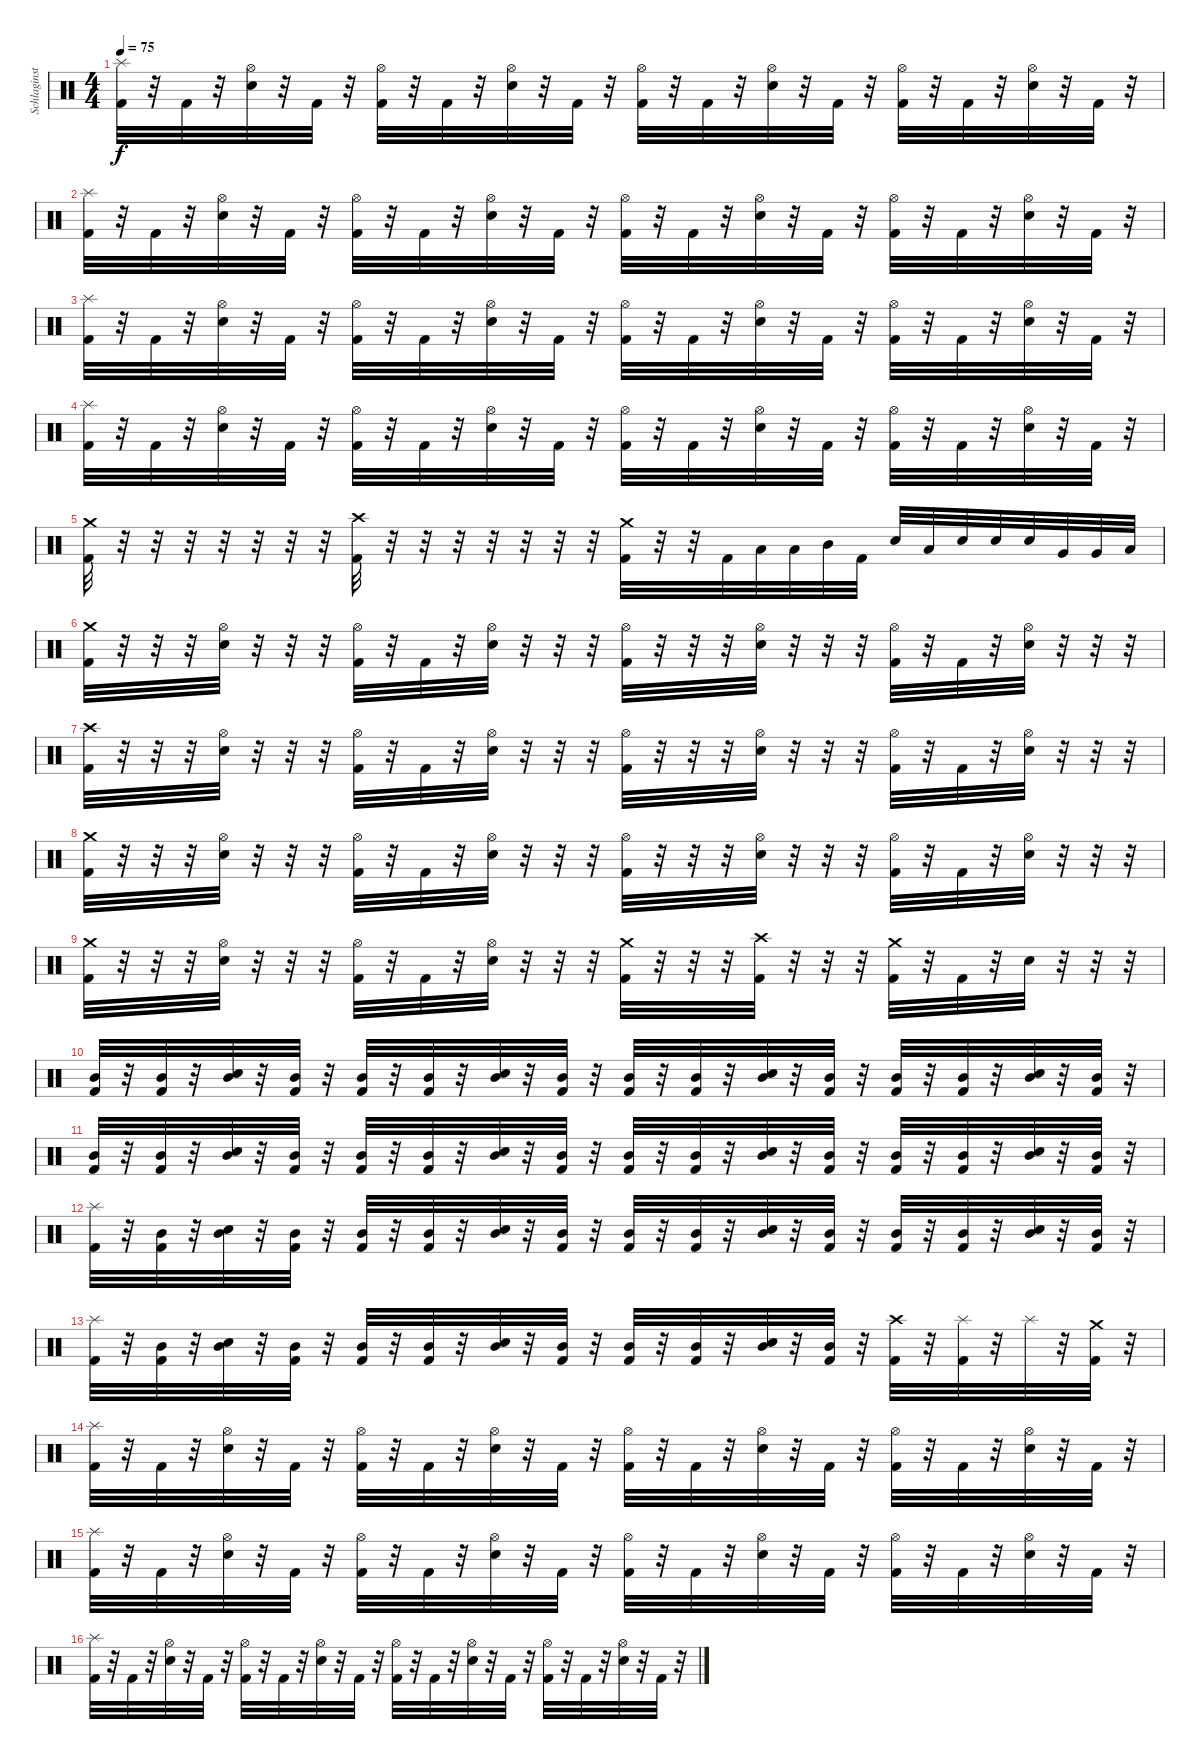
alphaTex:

\track ("Schlaginstrumente - Auswahl" "Schlaginst") {instrument percussion}
\staff {score}
\articulation defaults
\ts (4 4)
\tempo 75
\clef neutral
\ks c
("Kick (hit) 2" "Splash (hit)").32{dy f} r.32 "Kick (hit) 2".32 r.32 ("Electric Snare (hit)" "Hi-Hat (open)").32 r.32 "Kick (hit) 2".32 r.32 ("Kick (hit) 2" "Hi-Hat (open)").32 r.32 "Kick (hit) 2".32 r.32 ("Electric Snare (hit)" "Hi-Hat (open)").32 r.32 "Kick (hit) 2".32 r.32 ("Kick (hit) 2" "Hi-Hat (open)").32 r.32 "Kick (hit) 2".32 r.32 ("Electric Snare (hit)" "Hi-Hat (open)").32 r.32 "Kick (hit) 2".32 r.32 ("Kick (hit) 2" "Hi-Hat (open)").32 r.32 "Kick (hit) 2".32 r.32 ("Electric Snare (hit)" "Hi-Hat (open)").32 r.32 "Kick (hit) 2".32 r.32 |
("Kick (hit) 2" "Splash (hit)").32 r.32 "Kick (hit) 2".32 r.32 ("Electric Snare (hit)" "Hi-Hat (open)").32 r.32 "Kick (hit) 2".32 r.32 ("Kick (hit) 2" "Hi-Hat (open)").32 r.32 "Kick (hit) 2".32 r.32 ("Electric Snare (hit)" "Hi-Hat (open)").32 r.32 "Kick (hit) 2".32 r.32 ("Kick (hit) 2" "Hi-Hat (open)").32 r.32 "Kick (hit) 2".32 r.32 ("Electric Snare (hit)" "Hi-Hat (open)").32 r.32 "Kick (hit) 2".32 r.32 ("Kick (hit) 2" "Hi-Hat (open)").32 r.32 "Kick (hit) 2".32 r.32 ("Electric Snare (hit)" "Hi-Hat (open)").32 r.32 "Kick (hit) 2".32 r.32 |
("Kick (hit) 2" "Splash (hit)").32 r.32 "Kick (hit) 2".32 r.32 ("Electric Snare (hit)" "Hi-Hat (open)").32 r.32 "Kick (hit) 2".32 r.32 ("Kick (hit) 2" "Hi-Hat (open)").32 r.32 "Kick (hit) 2".32 r.32 ("Electric Snare (hit)" "Hi-Hat (open)").32 r.32 "Kick (hit) 2".32 r.32 ("Kick (hit) 2" "Hi-Hat (open)").32 r.32 "Kick (hit) 2".32 r.32 ("Electric Snare (hit)" "Hi-Hat (open)").32 r.32 "Kick (hit) 2".32 r.32 ("Kick (hit) 2" "Hi-Hat (open)").32 r.32 "Kick (hit) 2".32 r.32 ("Electric Snare (hit)" "Hi-Hat (open)").32 r.32 "Kick (hit) 2".32 r.32 |
("Kick (hit) 2" "Splash (hit)").32 r.32 "Kick (hit) 2".32 r.32 ("Electric Snare (hit)" "Hi-Hat (open)").32 r.32 "Kick (hit) 2".32 r.32 ("Kick (hit) 2" "Hi-Hat (open)").32 r.32 "Kick (hit) 2".32 r.32 ("Electric Snare (hit)" "Hi-Hat (open)").32 r.32 "Kick (hit) 2".32 r.32 ("Kick (hit) 2" "Hi-Hat (open)").32 r.32 "Kick (hit) 2".32 r.32 ("Electric Snare (hit)" "Hi-Hat (open)").32 r.32 "Kick (hit) 2".32 r.32 ("Kick (hit) 2" "Hi-Hat (open)").32 r.32 "Kick (hit) 2".32 r.32 ("Electric Snare (hit)" "Hi-Hat (open)").32 r.32 "Kick (hit) 2".32 r.32 |
("Kick (hit) 2" "Crash medium (hit)").32 r.32 r.32 r.32 r.32 r.32 r.32 r.32 ("Kick (hit) 2" "Crash high (hit)").32 r.32 r.32 r.32 r.32 r.32 r.32 r.32 ("Kick (hit) 2" "Crash medium (hit)").32 r.32 r.32 "Kick (hit) 2".32 "Low Tom (hit)".32 "Low Tom (hit)".32 "Mid Tom (hit)".32 "Kick (hit) 2".32 "Electric Snare (hit)".32 "Low Tom (hit)".32 "Electric Snare (hit)".32 "Electric Snare (hit)".32 "Electric Snare (hit)".32 "Very Low Tom (hit)".32 "Very Low Tom (hit)".32 "Low Floor Tom (hit)".32 |
("Kick (hit) 2" "Crash medium (hit)").32 r.32 r.32 r.32 ("Electric Snare (hit)" "Hi-Hat (open)").32 r.32 r.32 r.32 ("Kick (hit) 2" "Hi-Hat (open)").32 r.32 "Kick (hit) 2".32 r.32 ("Electric Snare (hit)" "Hi-Hat (open)").32 r.32 r.32 r.32 ("Kick (hit) 2" "Hi-Hat (open)").32 r.32 r.32 r.32 ("Electric Snare (hit)" "Hi-Hat (open)").32 r.32 r.32 r.32 ("Kick (hit) 2" "Hi-Hat (open)").32 r.32 "Kick (hit) 2".32 r.32 ("Electric Snare (hit)" "Hi-Hat (open)").32 r.32 r.32 r.32 |
("Kick (hit) 2" "Crash high (hit)").32 r.32 r.32 r.32 ("Electric Snare (hit)" "Hi-Hat (open)").32 r.32 r.32 r.32 ("Kick (hit) 2" "Hi-Hat (open)").32 r.32 "Kick (hit) 2".32 r.32 ("Electric Snare (hit)" "Hi-Hat (open)").32 r.32 r.32 r.32 ("Kick (hit) 2" "Hi-Hat (open)").32 r.32 r.32 r.32 ("Electric Snare (hit)" "Hi-Hat (open)").32 r.32 r.32 r.32 ("Kick (hit) 2" "Hi-Hat (open)").32 r.32 "Kick (hit) 2".32 r.32 ("Electric Snare (hit)" "Hi-Hat (open)").32 r.32 r.32 r.32 |
("Kick (hit) 2" "Crash medium (hit)").32 r.32 r.32 r.32 ("Electric Snare (hit)" "Hi-Hat (open)").32 r.32 r.32 r.32 ("Kick (hit) 2" "Hi-Hat (open)").32 r.32 "Kick (hit) 2".32 r.32 ("Electric Snare (hit)" "Hi-Hat (open)").32 r.32 r.32 r.32 ("Kick (hit) 2" "Hi-Hat (open)").32 r.32 r.32 r.32 ("Electric Snare (hit)" "Hi-Hat (open)").32 r.32 r.32 r.32 ("Kick (hit) 2" "Hi-Hat (open)").32 r.32 "Kick (hit) 2".32 r.32 ("Electric Snare (hit)" "Hi-Hat (open)").32 r.32 r.32 r.32 |
("Kick (hit) 2" "Crash medium (hit)").32 r.32 r.32 r.32 ("Electric Snare (hit)" "Hi-Hat (open)").32 r.32 r.32 r.32 ("Kick (hit) 2" "Hi-Hat (open)").32 r.32 "Kick (hit) 2".32 r.32 ("Electric Snare (hit)" "Hi-Hat (open)").32 r.32 r.32 r.32 ("Kick (hit) 2" "Crash medium (hit)").32 r.32 r.32 r.32 ("Kick (hit) 2" "Crash high (hit)").32 r.32 r.32 r.32 ("Kick (hit) 2" "Crash medium (hit)").32 r.32 "Kick (hit) 2".32 r.32 "Electric Snare (hit)".32 r.32 r.32 r.32 |
("Kick (hit) 2" "Mid Tom (hit)").32 r.32 ("Kick (hit) 2" "Mid Tom (hit)").32 r.32 ("Electric Snare (hit)" "Mid Tom (hit)").32 r.32 ("Kick (hit) 2" "Mid Tom (hit)").32 r.32 ("Kick (hit) 2" "Mid Tom (hit)").32 r.32 ("Kick (hit) 2" "Mid Tom (hit)").32 r.32 ("Electric Snare (hit)" "Mid Tom (hit)").32 r.32 ("Kick (hit) 2" "Mid Tom (hit)").32 r.32 ("Kick (hit) 2" "Mid Tom (hit)").32 r.32 ("Kick (hit) 2" "Mid Tom (hit)").32 r.32 ("Electric Snare (hit)" "Mid Tom (hit)").32 r.32 ("Kick (hit) 2" "Mid Tom (hit)").32 r.32 ("Kick (hit) 2" "Mid Tom (hit)").32 r.32 ("Kick (hit) 2" "Mid Tom (hit)").32 r.32 ("Electric Snare (hit)" "Mid Tom (hit)").32 r.32 ("Kick (hit) 2" "Mid Tom (hit)").32 r.32 |
("Kick (hit) 2" "Mid Tom (hit)").32 r.32 ("Kick (hit) 2" "Mid Tom (hit)").32 r.32 ("Electric Snare (hit)" "Mid Tom (hit)").32 r.32 ("Kick (hit) 2" "Mid Tom (hit)").32 r.32 ("Kick (hit) 2" "Mid Tom (hit)").32 r.32 ("Kick (hit) 2" "Mid Tom (hit)").32 r.32 ("Electric Snare (hit)" "Mid Tom (hit)").32 r.32 ("Kick (hit) 2" "Mid Tom (hit)").32 r.32 ("Kick (hit) 2" "Mid Tom (hit)").32 r.32 ("Kick (hit) 2" "Mid Tom (hit)").32 r.32 ("Electric Snare (hit)" "Mid Tom (hit)").32 r.32 ("Kick (hit) 2" "Mid Tom (hit)").32 r.32 ("Kick (hit) 2" "Mid Tom (hit)").32 r.32 ("Kick (hit) 2" "Mid Tom (hit)").32 r.32 ("Electric Snare (hit)" "Mid Tom (hit)").32 r.32 ("Kick (hit) 2" "Mid Tom (hit)").32 r.32 |
("Kick (hit) 2" "Splash (hit)").32 r.32 ("Kick (hit) 2" "Mid Tom (hit)").32 r.32 ("Electric Snare (hit)" "Mid Tom (hit)").32 r.32 ("Kick (hit) 2" "Mid Tom (hit)").32 r.32 ("Kick (hit) 2" "Mid Tom (hit)").32 r.32 ("Kick (hit) 2" "Mid Tom (hit)").32 r.32 ("Electric Snare (hit)" "Mid Tom (hit)").32 r.32 ("Kick (hit) 2" "Mid Tom (hit)").32 r.32 ("Kick (hit) 2" "Mid Tom (hit)").32 r.32 ("Kick (hit) 2" "Mid Tom (hit)").32 r.32 ("Electric Snare (hit)" "Mid Tom (hit)").32 r.32 ("Kick (hit) 2" "Mid Tom (hit)").32 r.32 ("Kick (hit) 2" "Mid Tom (hit)").32 r.32 ("Kick (hit) 2" "Mid Tom (hit)").32 r.32 ("Electric Snare (hit)" "Mid Tom (hit)").32 r.32 ("Kick (hit) 2" "Mid Tom (hit)").32 r.32 |
("Kick (hit) 2" "Splash (hit)").32 r.32 ("Kick (hit) 2" "Mid Tom (hit)").32 r.32 ("Electric Snare (hit)" "Mid Tom (hit)").32 r.32 ("Kick (hit) 2" "Mid Tom (hit)").32 r.32 ("Kick (hit) 2" "Mid Tom (hit)").32 r.32 ("Kick (hit) 2" "Mid Tom (hit)").32 r.32 ("Electric Snare (hit)" "Mid Tom (hit)").32 r.32 ("Kick (hit) 2" "Mid Tom (hit)").32 r.32 ("Kick (hit) 2" "Mid Tom (hit)").32 r.32 ("Kick (hit) 2" "Mid Tom (hit)").32 r.32 ("Electric Snare (hit)" "Mid Tom (hit)").32 r.32 ("Kick (hit) 2" "Mid Tom (hit)").32 r.32 ("Kick (hit) 2" "Crash high (hit)").32 r.32 ("Kick (hit) 2" "Splash (hit)").32 r.32 "Splash (hit)".32 r.32 ("Kick (hit) 2" "Crash medium (hit)").32 r.32 |
("Kick (hit) 2" "Splash (hit)").32 r.32 "Kick (hit) 2".32 r.32 ("Electric Snare (hit)" "Hi-Hat (open)").32 r.32 "Kick (hit) 2".32 r.32 ("Kick (hit) 2" "Hi-Hat (open)").32 r.32 "Kick (hit) 2".32 r.32 ("Electric Snare (hit)" "Hi-Hat (open)").32 r.32 "Kick (hit) 2".32 r.32 ("Kick (hit) 2" "Hi-Hat (open)").32 r.32 "Kick (hit) 2".32 r.32 ("Electric Snare (hit)" "Hi-Hat (open)").32 r.32 "Kick (hit) 2".32 r.32 ("Kick (hit) 2" "Hi-Hat (open)").32 r.32 "Kick (hit) 2".32 r.32 ("Electric Snare (hit)" "Hi-Hat (open)").32 r.32 "Kick (hit) 2".32 r.32 |
("Kick (hit) 2" "Splash (hit)").32 r.32 "Kick (hit) 2".32 r.32 ("Electric Snare (hit)" "Hi-Hat (open)").32 r.32 "Kick (hit) 2".32 r.32 ("Kick (hit) 2" "Hi-Hat (open)").32 r.32 "Kick (hit) 2".32 r.32 ("Electric Snare (hit)" "Hi-Hat (open)").32 r.32 "Kick (hit) 2".32 r.32 ("Kick (hit) 2" "Hi-Hat (open)").32 r.32 "Kick (hit) 2".32 r.32 ("Electric Snare (hit)" "Hi-Hat (open)").32 r.32 "Kick (hit) 2".32 r.32 ("Kick (hit) 2" "Hi-Hat (open)").32 r.32 "Kick (hit) 2".32 r.32 ("Electric Snare (hit)" "Hi-Hat (open)").32 r.32 "Kick (hit) 2".32 r.32 |
("Kick (hit) 2" "Splash (hit)").32 r.32 "Kick (hit) 2".32 r.32 ("Electric Snare (hit)" "Hi-Hat (open)").32 r.32 "Kick (hit) 2".32 r.32 ("Kick (hit) 2" "Hi-Hat (open)").32 r.32 "Kick (hit) 2".32 r.32 ("Electric Snare (hit)" "Hi-Hat (open)").32 r.32 "Kick (hit) 2".32 r.32 ("Kick (hit) 2" "Hi-Hat (open)").32 r.32 "Kick (hit) 2".32 r.32 ("Electric Snare (hit)" "Hi-Hat (open)").32 r.32 "Kick (hit) 2".32 r.32 ("Kick (hit) 2" "Hi-Hat (open)").32 r.32 "Kick (hit) 2".32 r.32 ("Electric Snare (hit)" "Hi-Hat (open)").32 r.32 "Kick (hit) 2".32 r.32
